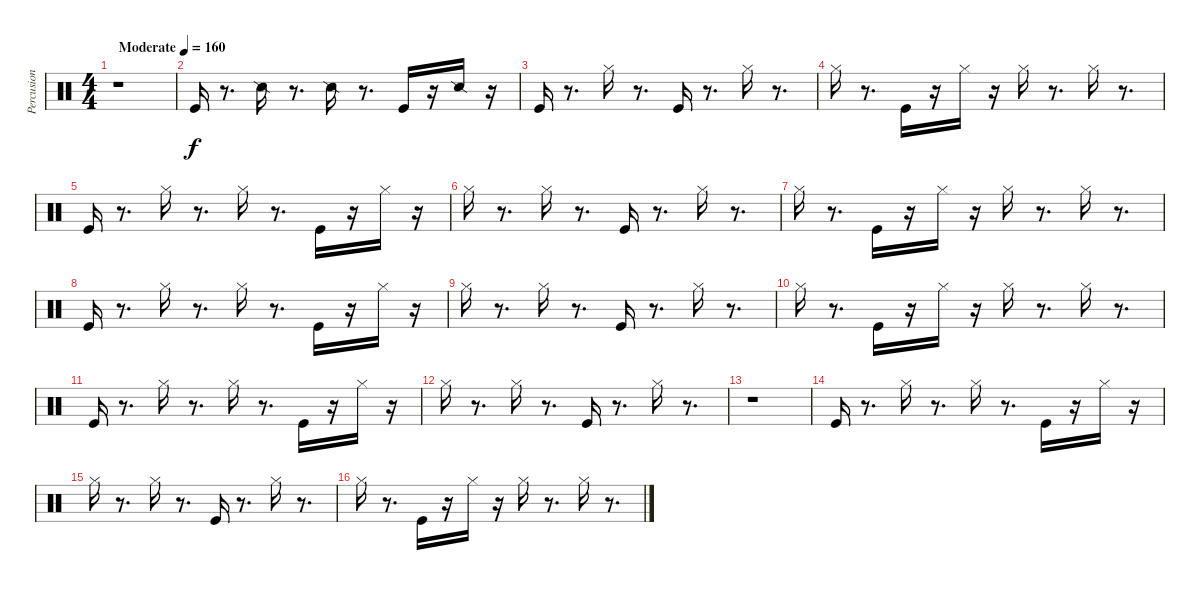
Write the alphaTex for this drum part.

\track ("Percusion" "Percusion") {instrument percussion}
\staff {score}
\articulation defaults
\ts (4 4)
\tempo (160 "Moderate")
\clef neutral
\ks c
r.1{dy f} |
"Kick (hit)".16 r.8{d} "Snare (side stick) 2".16 r.8{d} "Snare (side stick) 2".16 r.8{d} "Kick (hit)".16 r.16 "Snare (side stick) 2".16 r.16 |
"Kick (hit)".16 r.8{d} "Hi-Hat (closed)".16 r.8{d} "Kick (hit)".16 r.8{d} "Hi-Hat (closed)".16 r.8{d} |
"Hi-Hat (closed)".16 r.8{d} "Kick (hit)".16 r.16 "Hi-Hat (closed)".16 r.16 "Hi-Hat (closed)".16 r.8{d} "Hi-Hat (closed)".16 r.8{d} |
"Kick (hit)".16 r.8{d} "Hi-Hat (closed)".16 r.8{d} "Hi-Hat (closed)".16 r.8{d} "Kick (hit)".16 r.16 "Hi-Hat (closed)".16 r.16 |
"Hi-Hat (closed)".16 r.8{d} "Hi-Hat (closed)".16 r.8{d} "Kick (hit)".16 r.8{d} "Hi-Hat (closed)".16 r.8{d} |
"Hi-Hat (closed)".16 r.8{d} "Kick (hit)".16 r.16 "Hi-Hat (closed)".16 r.16 "Hi-Hat (closed)".16 r.8{d} "Hi-Hat (closed)".16 r.8{d} |
"Kick (hit)".16 r.8{d} "Hi-Hat (closed)".16 r.8{d} "Hi-Hat (closed)".16 r.8{d} "Kick (hit)".16 r.16 "Hi-Hat (closed)".16 r.16 |
"Hi-Hat (closed)".16 r.8{d} "Hi-Hat (closed)".16 r.8{d} "Kick (hit)".16 r.8{d} "Hi-Hat (closed)".16 r.8{d} |
"Hi-Hat (closed)".16 r.8{d} "Kick (hit)".16 r.16 "Hi-Hat (closed)".16 r.16 "Hi-Hat (closed)".16 r.8{d} "Hi-Hat (closed)".16 r.8{d} |
"Kick (hit)".16 r.8{d} "Hi-Hat (closed)".16 r.8{d} "Hi-Hat (closed)".16 r.8{d} "Kick (hit)".16 r.16 "Hi-Hat (closed)".16 r.16 |
"Hi-Hat (closed)".16 r.8{d} "Hi-Hat (closed)".16 r.8{d} "Kick (hit)".16 r.8{d} "Hi-Hat (closed)".16 r.8{d} |
r.1 |
"Kick (hit)".16 r.8{d} "Hi-Hat (closed)".16 r.8{d} "Hi-Hat (closed)".16 r.8{d} "Kick (hit)".16 r.16 "Hi-Hat (closed)".16 r.16 |
"Hi-Hat (closed)".16 r.8{d} "Hi-Hat (closed)".16 r.8{d} "Kick (hit)".16 r.8{d} "Hi-Hat (closed)".16 r.8{d} |
"Hi-Hat (closed)".16 r.8{d} "Kick (hit)".16 r.16 "Hi-Hat (closed)".16 r.16 "Hi-Hat (closed)".16 r.8{d} "Hi-Hat (closed)".16 r.8{d}
